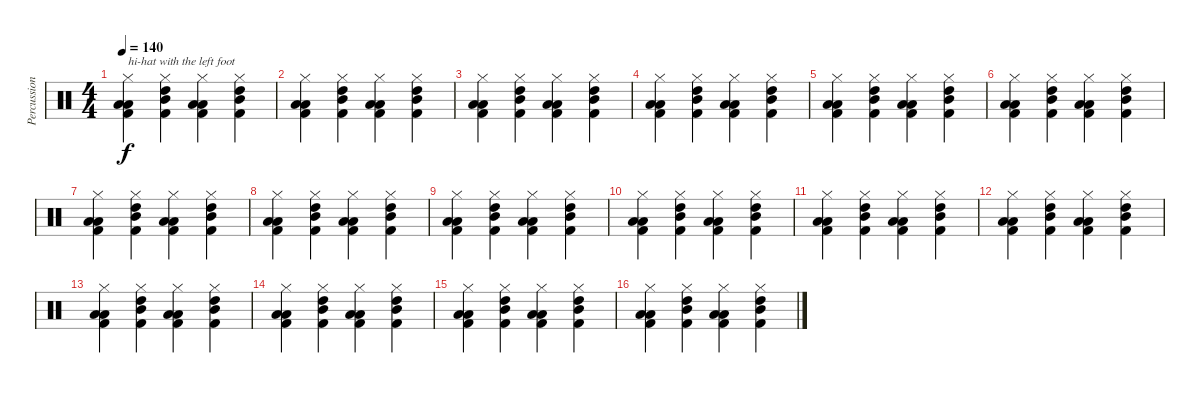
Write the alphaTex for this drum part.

\track ("Percussion" "Percussion") {instrument percussion}
\staff {score}
\articulation defaults
\ts (4 4)
\tempo 140
\clef neutral
\ks c
("Hi-Hat (closed)" "Low Tom (hit)" "Low Tom (hit)" "Kick (hit) 2").4{txt "hi-hat with the left foot" dy f} ("Hi-Hat (closed)" "High Tom (hit)" "Mid Tom (hit)" "Kick (hit) 2").4 ("Hi-Hat (closed)" "Low Tom (hit)" "Low Tom (hit)" "Kick (hit) 2").4 ("Hi-Hat (closed)" "High Tom (hit)" "Mid Tom (hit)" "Kick (hit) 2").4 |
("Hi-Hat (closed)" "Low Tom (hit)" "Low Tom (hit)" "Kick (hit) 2").4 ("Hi-Hat (closed)" "High Tom (hit)" "Mid Tom (hit)" "Kick (hit) 2").4 ("Hi-Hat (closed)" "Low Tom (hit)" "Low Tom (hit)" "Kick (hit) 2").4 ("Hi-Hat (closed)" "High Tom (hit)" "Mid Tom (hit)" "Kick (hit) 2").4 |
("Hi-Hat (closed)" "Low Tom (hit)" "Low Tom (hit)" "Kick (hit) 2").4 ("Hi-Hat (closed)" "High Tom (hit)" "Mid Tom (hit)" "Kick (hit) 2").4 ("Hi-Hat (closed)" "Low Tom (hit)" "Low Tom (hit)" "Kick (hit) 2").4 ("Hi-Hat (closed)" "High Tom (hit)" "Mid Tom (hit)" "Kick (hit) 2").4 |
("Hi-Hat (closed)" "Low Tom (hit)" "Low Tom (hit)" "Kick (hit) 2").4 ("Hi-Hat (closed)" "High Tom (hit)" "Mid Tom (hit)" "Kick (hit) 2").4 ("Hi-Hat (closed)" "Low Tom (hit)" "Low Tom (hit)" "Kick (hit) 2").4 ("Hi-Hat (closed)" "High Tom (hit)" "Mid Tom (hit)" "Kick (hit) 2").4 |
("Hi-Hat (closed)" "Low Tom (hit)" "Low Tom (hit)" "Kick (hit) 2").4 ("Hi-Hat (closed)" "High Tom (hit)" "Mid Tom (hit)" "Kick (hit) 2").4 ("Hi-Hat (closed)" "Low Tom (hit)" "Low Tom (hit)" "Kick (hit) 2").4 ("Hi-Hat (closed)" "High Tom (hit)" "Mid Tom (hit)" "Kick (hit) 2").4 |
("Hi-Hat (closed)" "Low Tom (hit)" "Low Tom (hit)" "Kick (hit) 2").4 ("Hi-Hat (closed)" "High Tom (hit)" "Mid Tom (hit)" "Kick (hit) 2").4 ("Hi-Hat (closed)" "Low Tom (hit)" "Low Tom (hit)" "Kick (hit) 2").4 ("Hi-Hat (closed)" "High Tom (hit)" "Mid Tom (hit)" "Kick (hit) 2").4 |
("Hi-Hat (closed)" "Low Tom (hit)" "Low Tom (hit)" "Kick (hit) 2").4 ("Hi-Hat (closed)" "High Tom (hit)" "Mid Tom (hit)" "Kick (hit) 2").4 ("Hi-Hat (closed)" "Low Tom (hit)" "Low Tom (hit)" "Kick (hit) 2").4 ("Hi-Hat (closed)" "High Tom (hit)" "Mid Tom (hit)" "Kick (hit) 2").4 |
("Hi-Hat (closed)" "Low Tom (hit)" "Low Tom (hit)" "Kick (hit) 2").4 ("Hi-Hat (closed)" "High Tom (hit)" "Mid Tom (hit)" "Kick (hit) 2").4 ("Hi-Hat (closed)" "Low Tom (hit)" "Low Tom (hit)" "Kick (hit) 2").4 ("Hi-Hat (closed)" "High Tom (hit)" "Mid Tom (hit)" "Kick (hit) 2").4 |
("Hi-Hat (closed)" "Low Tom (hit)" "Low Tom (hit)" "Kick (hit) 2").4 ("Hi-Hat (closed)" "High Tom (hit)" "Mid Tom (hit)" "Kick (hit) 2").4 ("Hi-Hat (closed)" "Low Tom (hit)" "Low Tom (hit)" "Kick (hit) 2").4 ("Hi-Hat (closed)" "High Tom (hit)" "Mid Tom (hit)" "Kick (hit) 2").4 |
("Hi-Hat (closed)" "Low Tom (hit)" "Low Tom (hit)" "Kick (hit) 2").4 ("Hi-Hat (closed)" "High Tom (hit)" "Mid Tom (hit)" "Kick (hit) 2").4 ("Hi-Hat (closed)" "Low Tom (hit)" "Low Tom (hit)" "Kick (hit) 2").4 ("Hi-Hat (closed)" "High Tom (hit)" "Mid Tom (hit)" "Kick (hit) 2").4 |
("Hi-Hat (closed)" "Low Tom (hit)" "Low Tom (hit)" "Kick (hit) 2").4 ("Hi-Hat (closed)" "High Tom (hit)" "Mid Tom (hit)" "Kick (hit) 2").4 ("Hi-Hat (closed)" "Low Tom (hit)" "Low Tom (hit)" "Kick (hit) 2").4 ("Hi-Hat (closed)" "High Tom (hit)" "Mid Tom (hit)" "Kick (hit) 2").4 |
("Hi-Hat (closed)" "Low Tom (hit)" "Low Tom (hit)" "Kick (hit) 2").4 ("Hi-Hat (closed)" "High Tom (hit)" "Mid Tom (hit)" "Kick (hit) 2").4 ("Hi-Hat (closed)" "Low Tom (hit)" "Low Tom (hit)" "Kick (hit) 2").4 ("Hi-Hat (closed)" "High Tom (hit)" "Mid Tom (hit)" "Kick (hit) 2").4 |
("Hi-Hat (closed)" "Low Tom (hit)" "Low Tom (hit)" "Kick (hit) 2").4 ("Hi-Hat (closed)" "High Tom (hit)" "Mid Tom (hit)" "Kick (hit) 2").4 ("Hi-Hat (closed)" "Low Tom (hit)" "Low Tom (hit)" "Kick (hit) 2").4 ("Hi-Hat (closed)" "High Tom (hit)" "Mid Tom (hit)" "Kick (hit) 2").4 |
("Hi-Hat (closed)" "Low Tom (hit)" "Low Tom (hit)" "Kick (hit) 2").4 ("Hi-Hat (closed)" "High Tom (hit)" "Mid Tom (hit)" "Kick (hit) 2").4 ("Hi-Hat (closed)" "Low Tom (hit)" "Low Tom (hit)" "Kick (hit) 2").4 ("Hi-Hat (closed)" "High Tom (hit)" "Mid Tom (hit)" "Kick (hit) 2").4 |
("Hi-Hat (closed)" "Low Tom (hit)" "Low Tom (hit)" "Kick (hit) 2").4 ("Hi-Hat (closed)" "High Tom (hit)" "Mid Tom (hit)" "Kick (hit) 2").4 ("Hi-Hat (closed)" "Low Tom (hit)" "Low Tom (hit)" "Kick (hit) 2").4 ("Hi-Hat (closed)" "High Tom (hit)" "Mid Tom (hit)" "Kick (hit) 2").4 |
("Hi-Hat (closed)" "Low Tom (hit)" "Low Tom (hit)" "Kick (hit) 2").4 ("Hi-Hat (closed)" "High Tom (hit)" "Mid Tom (hit)" "Kick (hit) 2").4 ("Hi-Hat (closed)" "Low Tom (hit)" "Low Tom (hit)" "Kick (hit) 2").4 ("Hi-Hat (closed)" "High Tom (hit)" "Mid Tom (hit)" "Kick (hit) 2").4
